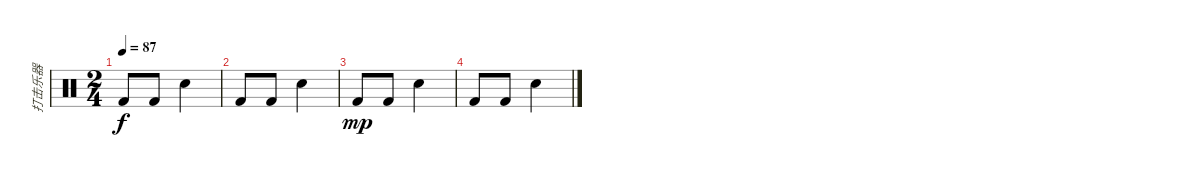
\track ("打击乐器" "打击乐器") {instrument percussion}
\staff {score}
\articulation defaults
\ts (2 4)
\tempo 87
\clef neutral
\ks c "Kick (hit) 2".8{dy f} "Kick (hit) 2".8 "Snare (hit) 2".4
|
"Kick (hit) 2".8 "Kick (hit) 2".8 "Snare (hit) 2".4 |
"Kick (hit) 2".8{dy mp} "Kick (hit) 2".8 "Snare (hit) 2".4 |
"Kick (hit) 2".8 "Kick (hit) 2".8 "Snare (hit) 2".4
